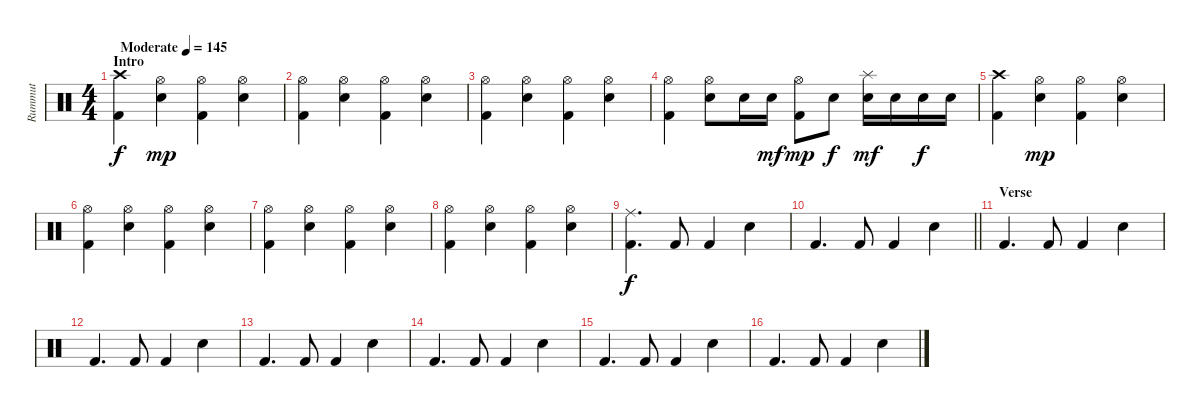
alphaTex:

\track ("Rummut" "Rummut") {instrument percussion}
\staff {score}
\articulation defaults
\ts (4 4)
\section ("" "Intro")
\tempo (145 "Moderate")
\clef neutral
\ks c
("Crash high (hit)" "Kick (hit) 2").4{dy f} ("Hi-Hat (open)" "Snare (hit) 2").4{dy mp} ("Hi-Hat (open)" "Kick (hit) 2").4 ("Hi-Hat (open)" "Snare (hit) 2").4 |
("Hi-Hat (open)" "Kick (hit) 2").4 ("Hi-Hat (open)" "Snare (hit) 2").4 ("Hi-Hat (open)" "Kick (hit) 2").4 ("Hi-Hat (open)" "Snare (hit) 2").4 |
("Hi-Hat (open)" "Kick (hit) 2").4 ("Hi-Hat (open)" "Snare (hit) 2").4 ("Hi-Hat (open)" "Kick (hit) 2").4 ("Hi-Hat (open)" "Snare (hit) 2").4 |
("Hi-Hat (open)" "Kick (hit) 2").4 ("Hi-Hat (open)" "Snare (hit) 2").8 "Electric Snare (hit)".16 "Electric Snare (hit)".16{dy mf} ("Hi-Hat (open)" "Kick (hit) 2").8{dy mp} "Electric Snare (hit)".8{dy f} ("Splash (hit)" "Electric Snare (hit)").16{dy mf} "Electric Snare (hit)".16 "Electric Snare (hit)".16{dy f} "Electric Snare (hit)".16 |
("Crash high (hit)" "Kick (hit) 2").4 ("Hi-Hat (open)" "Snare (hit) 2").4{dy mp} ("Hi-Hat (open)" "Kick (hit) 2").4 ("Hi-Hat (open)" "Snare (hit) 2").4 |
("Hi-Hat (open)" "Kick (hit) 2").4 ("Hi-Hat (open)" "Snare (hit) 2").4 ("Hi-Hat (open)" "Kick (hit) 2").4 ("Hi-Hat (open)" "Snare (hit) 2").4 |
("Hi-Hat (open)" "Kick (hit) 2").4 ("Hi-Hat (open)" "Snare (hit) 2").4 ("Hi-Hat (open)" "Kick (hit) 2").4 ("Hi-Hat (open)" "Snare (hit) 2").4 |
("Hi-Hat (open)" "Kick (hit) 2").4 ("Hi-Hat (open)" "Snare (hit) 2").4 ("Hi-Hat (open)" "Kick (hit) 2").4 ("Hi-Hat (open)" "Snare (hit) 2").4 |
("Ride (middle)" "Kick (hit) 2").4{d dy f} "Kick (hit) 2".8 "Kick (hit) 2".4 "Snare (hit) 2".4 |
\barLineRight lightlight "Kick (hit) 2".4{d} "Kick (hit) 2".8 "Kick (hit) 2".4 "Snare (hit) 2".4
|
\section ("" "Verse")
"Kick (hit) 2".4{d} "Kick (hit) 2".8 "Kick (hit) 2".4 "Snare (hit) 2".4 |
"Kick (hit) 2".4{d} "Kick (hit) 2".8 "Kick (hit) 2".4 "Snare (hit) 2".4 |
"Kick (hit) 2".4{d} "Kick (hit) 2".8 "Kick (hit) 2".4 "Snare (hit) 2".4 |
"Kick (hit) 2".4{d} "Kick (hit) 2".8 "Kick (hit) 2".4 "Snare (hit) 2".4 |
"Kick (hit) 2".4{d} "Kick (hit) 2".8 "Kick (hit) 2".4 "Snare (hit) 2".4 |
"Kick (hit) 2".4{d} "Kick (hit) 2".8 "Kick (hit) 2".4 "Snare (hit) 2".4
